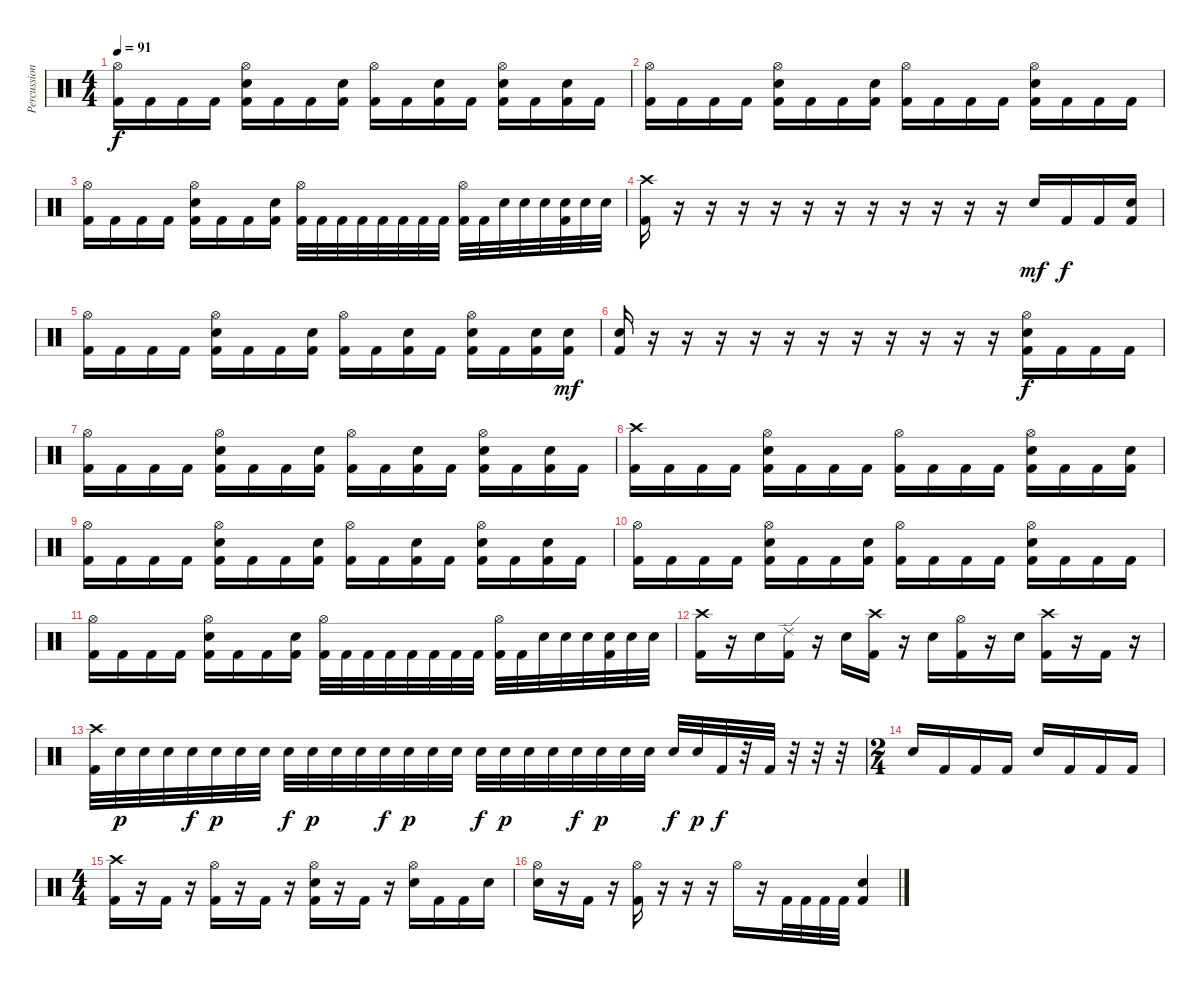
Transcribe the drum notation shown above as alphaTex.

\track ("Percussion" "Percussion") {instrument percussion}
\staff {score}
\articulation defaults
\ts (4 4)
\tempo 91
\clef neutral
\ks c
("Hi-Hat (open)" "Kick (hit) 2").16{dy f} "Kick (hit) 2".16 "Kick (hit) 2".16 "Kick (hit) 2".16 ("Hi-Hat (open)" "Snare (hit) 2" "Kick (hit) 2").16 "Kick (hit) 2".16 "Kick (hit) 2".16 ("Snare (hit) 2" "Kick (hit) 2").16 ("Hi-Hat (open)" "Kick (hit) 2").16 "Kick (hit) 2".16 ("Snare (hit) 2" "Kick (hit) 2").16 "Kick (hit) 2".16 ("Hi-Hat (open)" "Snare (hit) 2" "Kick (hit) 2").16 "Kick (hit) 2".16 ("Snare (hit) 2" "Kick (hit) 2").16 "Kick (hit) 2".16 |
("Hi-Hat (open)" "Kick (hit) 2").16 "Kick (hit) 2".16 "Kick (hit) 2".16 "Kick (hit) 2".16 ("Hi-Hat (open)" "Snare (hit) 2" "Kick (hit) 2").16 "Kick (hit) 2".16 "Kick (hit) 2".16 ("Snare (hit) 2" "Kick (hit) 2").16 ("Hi-Hat (open)" "Kick (hit) 2").16 "Kick (hit) 2".16 "Kick (hit) 2".16 "Kick (hit) 2".16 ("Hi-Hat (open)" "Snare (hit) 2" "Kick (hit) 2").16 "Kick (hit) 2".16 "Kick (hit) 2".16 "Kick (hit) 2".16 |
("Hi-Hat (open)" "Kick (hit) 2").16 "Kick (hit) 2".16 "Kick (hit) 2".16 "Kick (hit) 2".16 ("Hi-Hat (open)" "Snare (hit) 2" "Kick (hit) 2").16 "Kick (hit) 2".16 "Kick (hit) 2".16 ("Snare (hit) 2" "Kick (hit) 2").16 ("Hi-Hat (open)" "Kick (hit) 2").32 "Kick (hit) 2".32 "Kick (hit) 2".32 "Kick (hit) 2".32 "Kick (hit) 2".32 "Kick (hit) 2".32 "Kick (hit) 2".32 "Kick (hit) 2".32 ("Hi-Hat (open)" "Kick (hit) 2").32 "Kick (hit) 2".32 "Snare (hit) 2".32 "Snare (hit) 2".32 "Snare (hit) 2".32 ("Snare (hit) 2" "Kick (hit) 2").32 "Snare (hit) 2".32 "Snare (hit) 2".32 |
("Crash high (hit)" "Kick (hit) 2").16 r.16 r.16 r.16 r.16 r.16 r.16 r.16 r.16 r.16 r.16 r.16 "Snare (hit) 2".16{dy mf} "Kick (hit) 2".16{dy f} "Kick (hit) 2".16 ("Snare (hit) 2" "Kick (hit) 2").16 |
("Hi-Hat (open)" "Kick (hit) 2").16 "Kick (hit) 2".16 "Kick (hit) 2".16 "Kick (hit) 2".16 ("Hi-Hat (open)" "Snare (hit) 2" "Kick (hit) 2").16 "Kick (hit) 2".16 "Kick (hit) 2".16 ("Snare (hit) 2" "Kick (hit) 2").16 ("Hi-Hat (open)" "Kick (hit) 2").16 "Kick (hit) 2".16 ("Snare (hit) 2" "Kick (hit) 2").16 "Kick (hit) 2".16 ("Hi-Hat (open)" "Snare (hit) 2" "Kick (hit) 2").16 "Kick (hit) 2".16 ("Snare (hit) 2" "Kick (hit) 2").16 ("Snare (hit) 2" "Kick (hit) 2").16{dy mf} |
("Snare (hit) 2" "Kick (hit) 2").16 r.16 r.16 r.16 r.16 r.16 r.16 r.16 r.16 r.16 r.16 r.16 ("Hi-Hat (open)" "Snare (hit) 2" "Kick (hit) 2").16{dy f} "Kick (hit) 2".16 "Kick (hit) 2".16 "Kick (hit) 2".16 |
("Hi-Hat (open)" "Kick (hit) 2").16 "Kick (hit) 2".16 "Kick (hit) 2".16 "Kick (hit) 2".16 ("Hi-Hat (open)" "Snare (hit) 2" "Kick (hit) 2").16 "Kick (hit) 2".16 "Kick (hit) 2".16 ("Snare (hit) 2" "Kick (hit) 2").16 ("Hi-Hat (open)" "Kick (hit) 2").16 "Kick (hit) 2".16 ("Snare (hit) 2" "Kick (hit) 2").16 "Kick (hit) 2".16 ("Hi-Hat (open)" "Snare (hit) 2" "Kick (hit) 2").16 "Kick (hit) 2".16 ("Snare (hit) 2" "Kick (hit) 2").16 "Kick (hit) 2".16 |
("Crash high (hit)" "Kick (hit) 2").16 "Kick (hit) 2".16 "Kick (hit) 2".16 "Kick (hit) 2".16 ("Hi-Hat (open)" "Snare (hit) 2" "Kick (hit) 2").16 "Kick (hit) 2".16 "Kick (hit) 2".16 "Kick (hit) 2".16 ("Hi-Hat (open)" "Kick (hit) 2").16 "Kick (hit) 2".16 "Kick (hit) 2".16 "Kick (hit) 2".16 ("Hi-Hat (open)" "Snare (hit) 2" "Kick (hit) 2").16 "Kick (hit) 2".16 "Kick (hit) 2".16 ("Snare (hit) 2" "Kick (hit) 2").16 |
("Hi-Hat (open)" "Kick (hit) 2").16 "Kick (hit) 2".16 "Kick (hit) 2".16 "Kick (hit) 2".16 ("Hi-Hat (open)" "Snare (hit) 2" "Kick (hit) 2").16 "Kick (hit) 2".16 "Kick (hit) 2".16 ("Snare (hit) 2" "Kick (hit) 2").16 ("Hi-Hat (open)" "Kick (hit) 2").16 "Kick (hit) 2".16 ("Snare (hit) 2" "Kick (hit) 2").16 "Kick (hit) 2".16 ("Hi-Hat (open)" "Snare (hit) 2" "Kick (hit) 2").16 "Kick (hit) 2".16 ("Snare (hit) 2" "Kick (hit) 2").16 "Kick (hit) 2".16 |
("Hi-Hat (open)" "Kick (hit) 2").16 "Kick (hit) 2".16 "Kick (hit) 2".16 "Kick (hit) 2".16 ("Hi-Hat (open)" "Snare (hit) 2" "Kick (hit) 2").16 "Kick (hit) 2".16 "Kick (hit) 2".16 ("Snare (hit) 2" "Kick (hit) 2").16 ("Hi-Hat (open)" "Kick (hit) 2").16 "Kick (hit) 2".16 "Kick (hit) 2".16 "Kick (hit) 2".16 ("Hi-Hat (open)" "Snare (hit) 2" "Kick (hit) 2").16 "Kick (hit) 2".16 "Kick (hit) 2".16 "Kick (hit) 2".16 |
("Hi-Hat (open)" "Kick (hit) 2").16 "Kick (hit) 2".16 "Kick (hit) 2".16 "Kick (hit) 2".16 ("Hi-Hat (open)" "Snare (hit) 2" "Kick (hit) 2").16 "Kick (hit) 2".16 "Kick (hit) 2".16 ("Snare (hit) 2" "Kick (hit) 2").16 ("Hi-Hat (open)" "Kick (hit) 2").32 "Kick (hit) 2".32 "Kick (hit) 2".32 "Kick (hit) 2".32 "Kick (hit) 2".32 "Kick (hit) 2".32 "Kick (hit) 2".32 "Kick (hit) 2".32 ("Hi-Hat (open)" "Kick (hit) 2").32 "Kick (hit) 2".32 "Snare (hit) 2".32 "Snare (hit) 2".32 "Snare (hit) 2".32 ("Snare (hit) 2" "Kick (hit) 2").32 "Snare (hit) 2".32 "Snare (hit) 2".32 |
("Crash high (hit)" "Kick (hit) 2").16 r.16 "Snare (hit) 2".16 ("Ride (edge) 2" "Kick (hit) 2").16 r.16 "Snare (hit) 2".16 ("Crash high (hit)" "Kick (hit) 2").16 r.16 "Snare (hit) 2".16 ("Hi-Hat (open)" "Kick (hit) 2").16 r.16 "Snare (hit) 2".16 ("Crash high (hit)" "Kick (hit) 2").16 r.16 "Kick (hit) 2".16 r.16 |
("Crash high (hit)" "Kick (hit) 2").32 "Snare (hit) 2".32{dy p} "Snare (hit) 2".32 "Snare (hit) 2".32 "Snare (hit) 2".32{dy f} "Snare (hit) 2".32{dy p} "Snare (hit) 2".32 "Snare (hit) 2".32 "Snare (hit) 2".32{dy f} "Snare (hit) 2".32{dy p} "Snare (hit) 2".32 "Snare (hit) 2".32 "Snare (hit) 2".32{dy f} "Snare (hit) 2".32{dy p} "Snare (hit) 2".32 "Snare (hit) 2".32 "Snare (hit) 2".32{dy f} "Snare (hit) 2".32{dy p} "Snare (hit) 2".32 "Snare (hit) 2".32 "Snare (hit) 2".32{dy f} "Snare (hit) 2".32{dy p} "Snare (hit) 2".32 "Snare (hit) 2".32 "Snare (hit) 2".32{dy f} "Snare (hit) 2".32{dy p} "Kick (hit) 2".32{dy f} r.32 "Kick (hit) 2".32 r.32 r.32 r.32 |
\ts (2 4)
"Snare (hit) 2".16 "Kick (hit) 2".16 "Kick (hit) 2".16 "Kick (hit) 2".16 "Snare (hit) 2".16 "Kick (hit) 2".16 "Kick (hit) 2".16 "Kick (hit) 2".16 |
\ts (4 4)
("Crash high (hit)" "Kick (hit) 2").16 r.16 "Kick (hit) 2".16 r.16 ("Hi-Hat (open)" "Kick (hit) 2").16 r.16 "Kick (hit) 2".16 r.16 ("Hi-Hat (open)" "Snare (hit) 2" "Kick (hit) 2").16 r.16 "Kick (hit) 2".16 r.16 ("Hi-Hat (open)" "Snare (hit) 2").16 "Kick (hit) 2".16 "Kick (hit) 2".16 "Snare (hit) 2".16 |
("Hi-Hat (open)" "Snare (hit) 2").16 r.16 "Kick (hit) 2".16 r.16 ("Hi-Hat (open)" "Kick (hit) 2").16 r.16 r.16 r.16 "Hi-Hat (open)".16 r.16 "Kick (hit) 2".32 "Kick (hit) 2".32 "Kick (hit) 2".32 "Kick (hit) 2".32 ("Kick (hit) 2" "Snare (hit) 2").4
